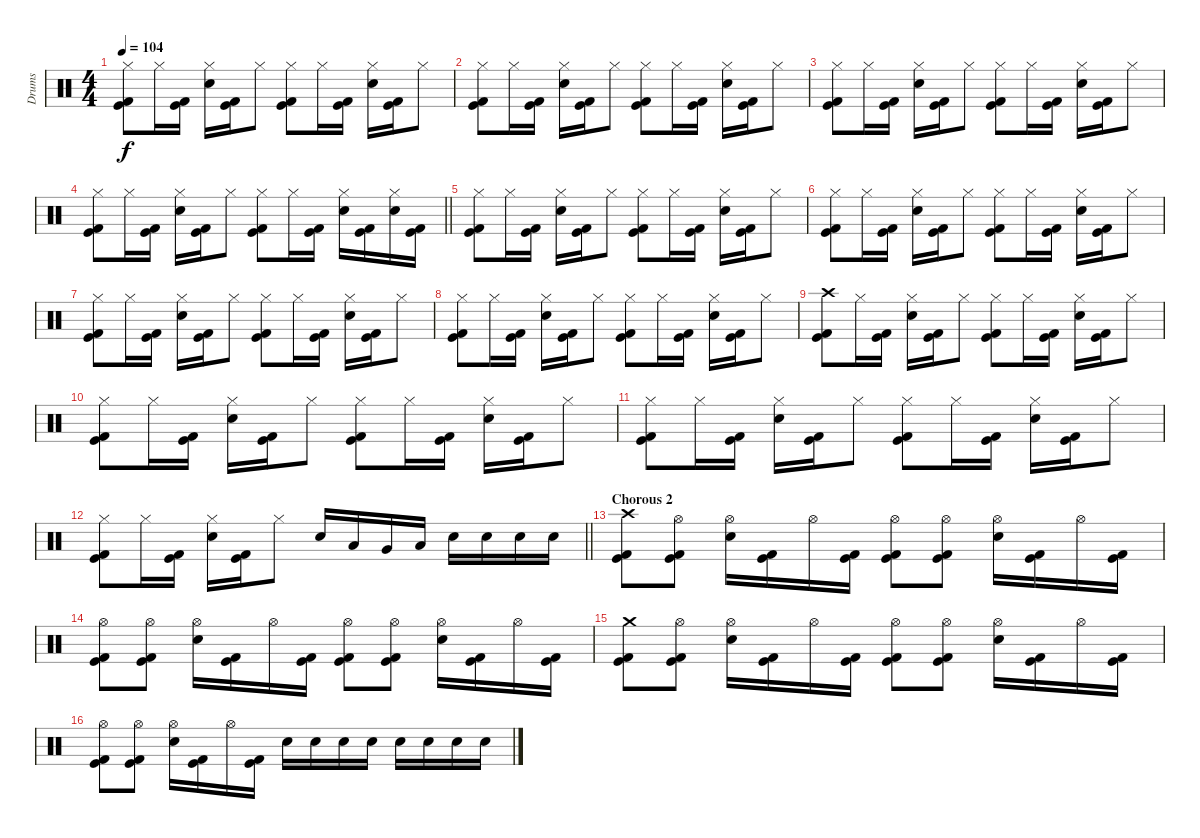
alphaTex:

\track ("Drums" "Drums") {instrument percussion}
\staff {score}
\articulation defaults
\ts (4 4)
\tempo 104
\clef neutral
\ks c
("Hi-Hat (closed)" "Kick (hit)" "Kick (hit) 2").8{dy f} "Hi-Hat (closed)".16 ("Kick (hit)" "Kick (hit) 2").16 ("Hi-Hat (closed)" "Electric Snare (hit)").16 ("Kick (hit)" "Kick (hit) 2").16 "Hi-Hat (closed)".8 ("Hi-Hat (closed)" "Kick (hit)" "Kick (hit) 2").8 "Hi-Hat (closed)".16 ("Kick (hit)" "Kick (hit) 2").16 ("Hi-Hat (closed)" "Electric Snare (hit)").16 ("Kick (hit)" "Kick (hit) 2").16 "Hi-Hat (closed)".8 |
("Hi-Hat (closed)" "Kick (hit)" "Kick (hit) 2").8 "Hi-Hat (closed)".16 ("Kick (hit)" "Kick (hit) 2").16 ("Hi-Hat (closed)" "Electric Snare (hit)").16 ("Kick (hit)" "Kick (hit) 2").16 "Hi-Hat (closed)".8 ("Hi-Hat (closed)" "Kick (hit)" "Kick (hit) 2").8 "Hi-Hat (closed)".16 ("Kick (hit)" "Kick (hit) 2").16 ("Hi-Hat (closed)" "Electric Snare (hit)").16 ("Kick (hit)" "Kick (hit) 2").16 "Hi-Hat (closed)".8 |
("Hi-Hat (closed)" "Kick (hit)" "Kick (hit) 2").8 "Hi-Hat (closed)".16 ("Kick (hit)" "Kick (hit) 2").16 ("Hi-Hat (closed)" "Electric Snare (hit)").16 ("Kick (hit)" "Kick (hit) 2").16 "Hi-Hat (closed)".8 ("Hi-Hat (closed)" "Kick (hit)" "Kick (hit) 2").8 "Hi-Hat (closed)".16 ("Kick (hit)" "Kick (hit) 2").16 ("Hi-Hat (closed)" "Electric Snare (hit)").16 ("Kick (hit)" "Kick (hit) 2").16 "Hi-Hat (closed)".8 |
\barLineRight lightlight
("Hi-Hat (closed)" "Kick (hit)" "Kick (hit) 2").8 "Hi-Hat (closed)".16 ("Kick (hit)" "Kick (hit) 2").16 ("Hi-Hat (closed)" "Electric Snare (hit)").16 ("Kick (hit)" "Kick (hit) 2").16 "Hi-Hat (closed)".8 ("Hi-Hat (closed)" "Kick (hit)" "Kick (hit) 2").8 "Hi-Hat (closed)".16 ("Kick (hit)" "Kick (hit) 2").16 ("Hi-Hat (closed)" "Electric Snare (hit)").16 ("Kick (hit)" "Kick (hit) 2").16 ("Hi-Hat (closed)" "Electric Snare (hit)").16 ("Kick (hit)" "Kick (hit) 2").16 |
("Hi-Hat (closed)" "Kick (hit)" "Kick (hit) 2").8 "Hi-Hat (closed)".16 ("Kick (hit)" "Kick (hit) 2").16 ("Hi-Hat (closed)" "Electric Snare (hit)").16 ("Kick (hit)" "Kick (hit) 2").16 "Hi-Hat (closed)".8 ("Hi-Hat (closed)" "Kick (hit)" "Kick (hit) 2").8 "Hi-Hat (closed)".16 ("Kick (hit)" "Kick (hit) 2").16 ("Hi-Hat (closed)" "Electric Snare (hit)").16 ("Kick (hit)" "Kick (hit) 2").16 "Hi-Hat (closed)".8 |
("Hi-Hat (closed)" "Kick (hit)" "Kick (hit) 2").8 "Hi-Hat (closed)".16 ("Kick (hit)" "Kick (hit) 2").16 ("Hi-Hat (closed)" "Electric Snare (hit)").16 ("Kick (hit)" "Kick (hit) 2").16 "Hi-Hat (closed)".8 ("Hi-Hat (closed)" "Kick (hit)" "Kick (hit) 2").8 "Hi-Hat (closed)".16 ("Kick (hit)" "Kick (hit) 2").16 ("Hi-Hat (closed)" "Electric Snare (hit)").16 ("Kick (hit)" "Kick (hit) 2").16 "Hi-Hat (closed)".8 |
("Hi-Hat (closed)" "Kick (hit)" "Kick (hit) 2").8 "Hi-Hat (closed)".16 ("Kick (hit)" "Kick (hit) 2").16 ("Hi-Hat (closed)" "Electric Snare (hit)").16 ("Kick (hit)" "Kick (hit) 2").16 "Hi-Hat (closed)".8 ("Hi-Hat (closed)" "Kick (hit)" "Kick (hit) 2").8 "Hi-Hat (closed)".16 ("Kick (hit)" "Kick (hit) 2").16 ("Hi-Hat (closed)" "Electric Snare (hit)").16 ("Kick (hit)" "Kick (hit) 2").16 "Hi-Hat (closed)".8 |
("Hi-Hat (closed)" "Kick (hit)" "Kick (hit) 2").8 "Hi-Hat (closed)".16 ("Kick (hit)" "Kick (hit) 2").16 ("Hi-Hat (closed)" "Electric Snare (hit)").16 ("Kick (hit)" "Kick (hit) 2").16 "Hi-Hat (closed)".8 ("Hi-Hat (closed)" "Kick (hit)" "Kick (hit) 2").8 "Hi-Hat (closed)".16 ("Kick (hit)" "Kick (hit) 2").16 ("Hi-Hat (closed)" "Electric Snare (hit)").16 ("Kick (hit)" "Kick (hit) 2").16 "Hi-Hat (closed)".8 |
("Crash high (hit)" "Kick (hit)" "Kick (hit) 2").8 "Hi-Hat (closed)".16 ("Kick (hit)" "Kick (hit) 2").16 ("Hi-Hat (closed)" "Electric Snare (hit)").16 ("Kick (hit)" "Kick (hit) 2").16 "Hi-Hat (closed)".8 ("Hi-Hat (closed)" "Kick (hit)" "Kick (hit) 2").8 "Hi-Hat (closed)".16 ("Kick (hit)" "Kick (hit) 2").16 ("Hi-Hat (closed)" "Electric Snare (hit)").16 ("Kick (hit)" "Kick (hit) 2").16 "Hi-Hat (closed)".8 |
("Hi-Hat (closed)" "Kick (hit)" "Kick (hit) 2").8 "Hi-Hat (closed)".16 ("Kick (hit)" "Kick (hit) 2").16 ("Hi-Hat (closed)" "Electric Snare (hit)").16 ("Kick (hit)" "Kick (hit) 2").16 "Hi-Hat (closed)".8 ("Hi-Hat (closed)" "Kick (hit)" "Kick (hit) 2").8 "Hi-Hat (closed)".16 ("Kick (hit)" "Kick (hit) 2").16 ("Hi-Hat (closed)" "Electric Snare (hit)").16 ("Kick (hit)" "Kick (hit) 2").16 "Hi-Hat (closed)".8 |
("Hi-Hat (closed)" "Kick (hit)" "Kick (hit) 2").8 "Hi-Hat (closed)".16 ("Kick (hit)" "Kick (hit) 2").16 ("Hi-Hat (closed)" "Electric Snare (hit)").16 ("Kick (hit)" "Kick (hit) 2").16 "Hi-Hat (closed)".8 ("Hi-Hat (closed)" "Kick (hit)" "Kick (hit) 2").8 "Hi-Hat (closed)".16 ("Kick (hit)" "Kick (hit) 2").16 ("Hi-Hat (closed)" "Electric Snare (hit)").16 ("Kick (hit)" "Kick (hit) 2").16 "Hi-Hat (closed)".8 |
\barLineRight lightlight
("Hi-Hat (closed)" "Kick (hit)" "Kick (hit) 2").8 "Hi-Hat (closed)".16 ("Kick (hit)" "Kick (hit) 2").16 ("Hi-Hat (closed)" "Electric Snare (hit)").16 ("Kick (hit)" "Kick (hit) 2").16 "Hi-Hat (closed)".8 "Electric Snare (hit)".16 "Low Tom (hit)".16 "Very Low Tom (hit)".16 "Low Floor Tom (hit)".16 "Electric Snare (hit)".16 "Electric Snare (hit)".16 "Electric Snare (hit)".16 "Electric Snare (hit)".16 |
\section ("" "Chorous 2")
("Crash high (hit)" "Kick (hit)" "Kick (hit) 2").8 ("Hi-Hat (open)" "Kick (hit)" "Kick (hit) 2").8 ("Hi-Hat (open)" "Electric Snare (hit)").16 ("Kick (hit)" "Kick (hit) 2").16 "Hi-Hat (open)".16 ("Kick (hit)" "Kick (hit) 2").16 ("Hi-Hat (open)" "Kick (hit)" "Kick (hit) 2").8 ("Hi-Hat (open)" "Kick (hit)" "Kick (hit) 2").8 ("Hi-Hat (open)" "Electric Snare (hit)").16 ("Kick (hit)" "Kick (hit) 2").16 "Hi-Hat (open)".16 ("Kick (hit)" "Kick (hit) 2").16 |
("Hi-Hat (open)" "Kick (hit)" "Kick (hit) 2").8 ("Hi-Hat (open)" "Kick (hit)" "Kick (hit) 2").8 ("Hi-Hat (open)" "Electric Snare (hit)").16 ("Kick (hit)" "Kick (hit) 2").16 "Hi-Hat (open)".16 ("Kick (hit)" "Kick (hit) 2").16 ("Hi-Hat (open)" "Kick (hit)" "Kick (hit) 2").8 ("Hi-Hat (open)" "Kick (hit)" "Kick (hit) 2").8 ("Hi-Hat (open)" "Electric Snare (hit)").16 ("Kick (hit)" "Kick (hit) 2").16 "Hi-Hat (open)".16 ("Kick (hit)" "Kick (hit) 2").16 |
("Crash medium (hit)" "Kick (hit)" "Kick (hit) 2").8 ("Hi-Hat (open)" "Kick (hit)" "Kick (hit) 2").8 ("Hi-Hat (open)" "Electric Snare (hit)").16 ("Kick (hit)" "Kick (hit) 2").16 "Hi-Hat (open)".16 ("Kick (hit)" "Kick (hit) 2").16 ("Hi-Hat (open)" "Kick (hit)" "Kick (hit) 2").8 ("Hi-Hat (open)" "Kick (hit)" "Kick (hit) 2").8 ("Hi-Hat (open)" "Electric Snare (hit)").16 ("Kick (hit)" "Kick (hit) 2").16 "Hi-Hat (open)".16 ("Kick (hit)" "Kick (hit) 2").16 |
("Hi-Hat (open)" "Kick (hit)" "Kick (hit) 2").8 ("Hi-Hat (open)" "Kick (hit)" "Kick (hit) 2").8 ("Hi-Hat (open)" "Electric Snare (hit)").16 ("Kick (hit)" "Kick (hit) 2").16 "Hi-Hat (open)".16 ("Kick (hit)" "Kick (hit) 2").16 "Electric Snare (hit)".16 "Electric Snare (hit)".16 "Electric Snare (hit)".16 "Electric Snare (hit)".16 "Electric Snare (hit)".16 "Electric Snare (hit)".16 "Electric Snare (hit)".16 "Electric Snare (hit)".16
